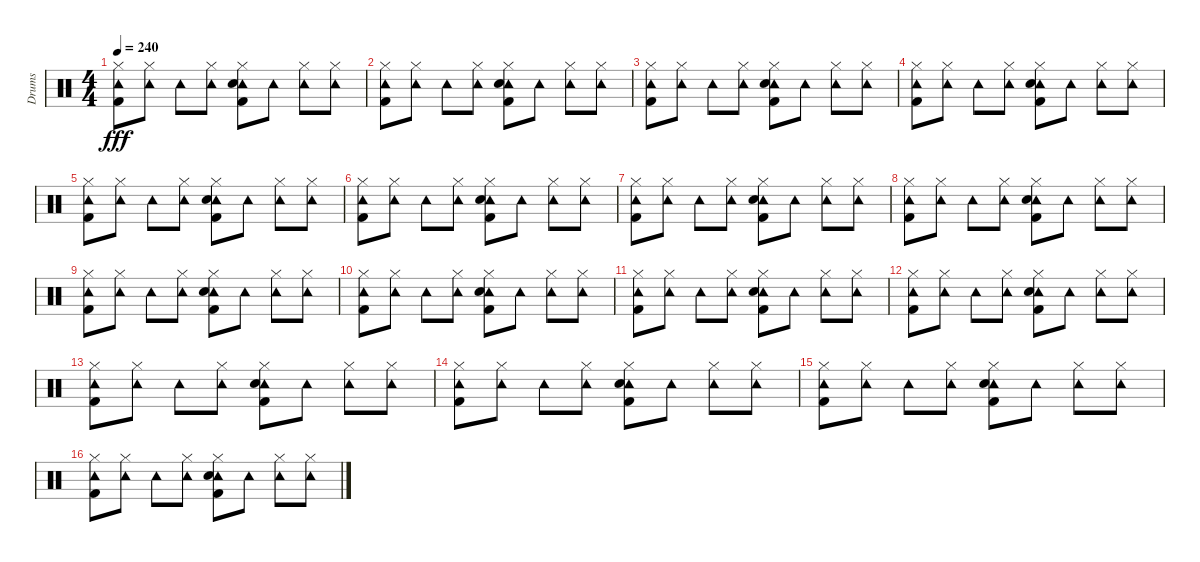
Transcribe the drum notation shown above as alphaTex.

\track ("Drums" "Drums") {instrument percussion}
\staff {score}
\articulation defaults
\ts (4 4)
\tempo 240
\clef neutral
\ks c
("Tambourine (hit)" "Hi-Hat (closed)" "Kick (hit) 2").8{dy fff} ("Tambourine (hit)" "Hi-Hat (closed)").8 "Tambourine (hit)".8 ("Tambourine (hit)" "Hi-Hat (closed)").8 ("Tambourine (hit)" "Hi-Hat (closed)" "Snare (hit) 2" "Kick (hit) 2").8 "Tambourine (hit)".8 ("Tambourine (hit)" "Hi-Hat (closed)").8 ("Tambourine (hit)" "Hi-Hat (closed)").8 |
("Tambourine (hit)" "Hi-Hat (closed)" "Kick (hit) 2").8 ("Tambourine (hit)" "Hi-Hat (closed)").8 "Tambourine (hit)".8 ("Tambourine (hit)" "Hi-Hat (closed)").8 ("Tambourine (hit)" "Hi-Hat (closed)" "Snare (hit) 2" "Kick (hit) 2").8 "Tambourine (hit)".8 ("Tambourine (hit)" "Hi-Hat (closed)").8 ("Tambourine (hit)" "Hi-Hat (closed)").8 |
("Tambourine (hit)" "Hi-Hat (closed)" "Kick (hit) 2").8 ("Tambourine (hit)" "Hi-Hat (closed)").8 "Tambourine (hit)".8 ("Tambourine (hit)" "Hi-Hat (closed)").8 ("Tambourine (hit)" "Hi-Hat (closed)" "Snare (hit) 2" "Kick (hit) 2").8 "Tambourine (hit)".8 ("Tambourine (hit)" "Hi-Hat (closed)").8 ("Tambourine (hit)" "Hi-Hat (closed)").8 |
("Tambourine (hit)" "Hi-Hat (closed)" "Kick (hit) 2").8 ("Tambourine (hit)" "Hi-Hat (closed)").8 "Tambourine (hit)".8 ("Tambourine (hit)" "Hi-Hat (closed)").8 ("Tambourine (hit)" "Hi-Hat (closed)" "Snare (hit) 2" "Kick (hit) 2").8 "Tambourine (hit)".8 ("Tambourine (hit)" "Hi-Hat (closed)").8 ("Tambourine (hit)" "Hi-Hat (closed)").8 |
("Tambourine (hit)" "Hi-Hat (closed)" "Kick (hit) 2").8 ("Tambourine (hit)" "Hi-Hat (closed)").8 "Tambourine (hit)".8 ("Tambourine (hit)" "Hi-Hat (closed)").8 ("Tambourine (hit)" "Hi-Hat (closed)" "Hand Clap (hit)" "Kick (hit) 2").8 "Tambourine (hit)".8 ("Tambourine (hit)" "Hi-Hat (closed)").8 ("Tambourine (hit)" "Hi-Hat (closed)").8 |
("Tambourine (hit)" "Hi-Hat (closed)" "Kick (hit) 2").8 ("Tambourine (hit)" "Hi-Hat (closed)").8 "Tambourine (hit)".8 ("Tambourine (hit)" "Hi-Hat (closed)").8 ("Tambourine (hit)" "Hi-Hat (closed)" "Hand Clap (hit)" "Kick (hit) 2").8 "Tambourine (hit)".8 ("Tambourine (hit)" "Hi-Hat (closed)").8 ("Tambourine (hit)" "Hi-Hat (closed)").8 |
("Tambourine (hit)" "Hi-Hat (closed)" "Kick (hit) 2").8 ("Tambourine (hit)" "Hi-Hat (closed)").8 "Tambourine (hit)".8 ("Tambourine (hit)" "Hi-Hat (closed)").8 ("Tambourine (hit)" "Hi-Hat (closed)" "Hand Clap (hit)" "Kick (hit) 2").8 "Tambourine (hit)".8 ("Tambourine (hit)" "Hi-Hat (closed)").8 ("Tambourine (hit)" "Hi-Hat (closed)").8 |
("Tambourine (hit)" "Hi-Hat (closed)" "Kick (hit) 2").8 ("Tambourine (hit)" "Hi-Hat (closed)").8 "Tambourine (hit)".8 ("Tambourine (hit)" "Hi-Hat (closed)").8 ("Tambourine (hit)" "Hi-Hat (closed)" "Hand Clap (hit)" "Kick (hit) 2").8 "Tambourine (hit)".8 ("Tambourine (hit)" "Hi-Hat (closed)").8 ("Tambourine (hit)" "Hi-Hat (closed)").8 |
("Tambourine (hit)" "Hi-Hat (closed)" "Kick (hit) 2").8 ("Tambourine (hit)" "Hi-Hat (closed)").8 "Tambourine (hit)".8 ("Tambourine (hit)" "Hi-Hat (closed)").8 ("Tambourine (hit)" "Hi-Hat (closed)" "Hand Clap (hit)" "Kick (hit) 2").8 "Tambourine (hit)".8 ("Tambourine (hit)" "Hi-Hat (closed)").8 ("Tambourine (hit)" "Hi-Hat (closed)").8 |
("Tambourine (hit)" "Hi-Hat (closed)" "Kick (hit) 2").8 ("Tambourine (hit)" "Hi-Hat (closed)").8 "Tambourine (hit)".8 ("Tambourine (hit)" "Hi-Hat (closed)").8 ("Tambourine (hit)" "Hi-Hat (closed)" "Hand Clap (hit)" "Kick (hit) 2").8 "Tambourine (hit)".8 ("Tambourine (hit)" "Hi-Hat (closed)").8 ("Tambourine (hit)" "Hi-Hat (closed)").8 |
("Tambourine (hit)" "Hi-Hat (closed)" "Kick (hit) 2").8 ("Tambourine (hit)" "Hi-Hat (closed)").8 "Tambourine (hit)".8 ("Tambourine (hit)" "Hi-Hat (closed)").8 ("Tambourine (hit)" "Hi-Hat (closed)" "Hand Clap (hit)" "Kick (hit) 2").8 "Tambourine (hit)".8 ("Tambourine (hit)" "Hi-Hat (closed)").8 ("Tambourine (hit)" "Hi-Hat (closed)").8 |
("Tambourine (hit)" "Hi-Hat (closed)" "Kick (hit) 2").8 ("Tambourine (hit)" "Hi-Hat (closed)").8 "Tambourine (hit)".8 ("Tambourine (hit)" "Hi-Hat (closed)").8 ("Tambourine (hit)" "Hi-Hat (closed)" "Hand Clap (hit)" "Kick (hit) 2").8 "Tambourine (hit)".8 ("Tambourine (hit)" "Hi-Hat (closed)").8 ("Tambourine (hit)" "Hi-Hat (closed)").8 |
("Tambourine (hit)" "Hi-Hat (closed)" "Kick (hit) 2").8 ("Tambourine (hit)" "Hi-Hat (closed)").8 "Tambourine (hit)".8 ("Tambourine (hit)" "Hi-Hat (closed)").8 ("Tambourine (hit)" "Hi-Hat (closed)" "Hand Clap (hit)" "Kick (hit) 2").8 "Tambourine (hit)".8 ("Tambourine (hit)" "Hi-Hat (closed)").8 ("Tambourine (hit)" "Hi-Hat (closed)").8 |
("Tambourine (hit)" "Hi-Hat (closed)" "Kick (hit) 2").8 ("Tambourine (hit)" "Hi-Hat (closed)").8 "Tambourine (hit)".8 ("Tambourine (hit)" "Hi-Hat (closed)").8 ("Tambourine (hit)" "Hi-Hat (closed)" "Hand Clap (hit)" "Kick (hit) 2").8 "Tambourine (hit)".8 ("Tambourine (hit)" "Hi-Hat (closed)").8 ("Tambourine (hit)" "Hi-Hat (closed)").8 |
("Tambourine (hit)" "Hi-Hat (closed)" "Kick (hit) 2").8 ("Tambourine (hit)" "Hi-Hat (closed)").8 "Tambourine (hit)".8 ("Tambourine (hit)" "Hi-Hat (closed)").8 ("Tambourine (hit)" "Hi-Hat (closed)" "Hand Clap (hit)" "Kick (hit) 2").8 "Tambourine (hit)".8 ("Tambourine (hit)" "Hi-Hat (closed)").8 ("Tambourine (hit)" "Hi-Hat (closed)").8 |
("Tambourine (hit)" "Hi-Hat (closed)" "Kick (hit) 2").8 ("Tambourine (hit)" "Hi-Hat (closed)").8 "Tambourine (hit)".8 ("Tambourine (hit)" "Hi-Hat (closed)").8 ("Tambourine (hit)" "Hi-Hat (closed)" "Hand Clap (hit)" "Kick (hit) 2").8 "Tambourine (hit)".8 ("Tambourine (hit)" "Hi-Hat (closed)").8 ("Tambourine (hit)" "Hi-Hat (closed)").8
